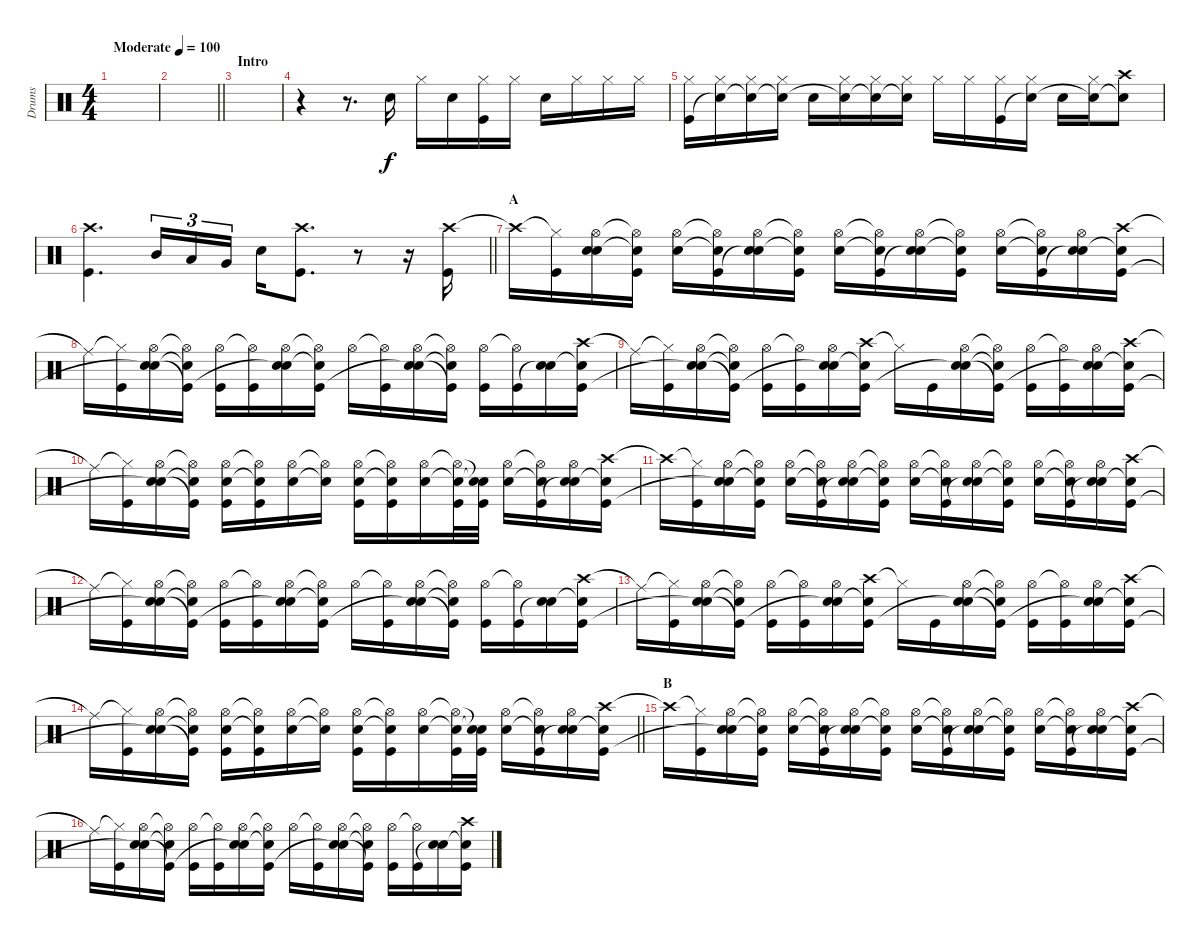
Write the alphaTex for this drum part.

\track ("Drums" "Drums") {instrument percussion}
\staff {score}
\articulation defaults
\ts (4 4)
\tempo (100 "Moderate")
\clef neutral
\ks c
|
\barLineRight lightlight
|
\section ("" "Intro")
|
r.4 r.8{d} "Snare (hit) 2".16 "Hi-Hat (closed)".16 "Snare (hit) 2".16 ("Hi-Hat (closed)" "Kick (hit)").16 "Hi-Hat (closed)".16 "Snare (hit) 2".16 "Hi-Hat (closed)".16 "Hi-Hat (closed)".16 "Hi-Hat (closed)".16 |
("Hi-Hat (closed)" "Kick (hit)").16 ("Hi-Hat (closed)" "Snare (hit)"{t}).16 ("Hi-Hat (closed)" "Snare (hit)"{t}).16 ("Hi-Hat (closed)" "Snare (hit)"{t}).16 "Snare (hit) 2".16 ("Hi-Hat (closed)" "Snare (hit)"{t}).16 ("Hi-Hat (closed)" "Snare (hit)"{t}).16 ("Hi-Hat (closed)" "Snare (hit)"{t}).16 "Hi-Hat (closed)".16 "Hi-Hat (closed)".16 ("Hi-Hat (closed)" "Kick (hit)").16 ("Hi-Hat (closed)" "Snare (hit)"{t}).16 "Snare (hit) 2".16 ("Hi-Hat (closed)" "Snare (hit)"{t}).16 ("Crash high (hit)" "Snare (hit)"{t}).8 |
\barLineRight lightlight
("Crash high (hit)" "Kick (hit)").4{d} "Mid Tom (hit)".16{tu (3 2)} "Low Tom (hit)".16{tu (3 2)} "Very Low Tom (hit)".16{tu (3 2)} "Snare (hit) 2".16 ("Crash high (hit)" "Kick (hit)").8{d} r.8 r.16 ("Crash high (hit)" "Kick (hit)").16 |
\section ("" "A")
"Crash high (hit)"{t}.16 ("Hi-Hat (closed)"{t} "Kick (hit)").16 ("Hi-Hat (open)" "Snare (hit) 2" "Snare (hit)").16 ("Hi-Hat (open)"{t} "Snare (hit) 2"{t} "Kick (hit)").16 ("Hi-Hat (open)" "Snare (hit) 2").16 ("Hi-Hat (open)"{t} "Snare (hit) 2"{t} "Kick (hit)").16 ("Hi-Hat (open)" "Snare (hit) 2" "Snare (hit)"{t}).16 ("Hi-Hat (open)"{t} "Snare (hit) 2"{t} "Kick (hit)").16 ("Hi-Hat (open)" "Snare (hit) 2").16 ("Hi-Hat (open)"{t} "Snare (hit) 2"{t} "Kick (hit)").16 ("Hi-Hat (open)" "Snare (hit) 2" "Snare (hit)"{t}).16 ("Hi-Hat (open)"{t} "Snare (hit) 2"{t} "Kick (hit)").16 ("Hi-Hat (open)" "Snare (hit) 2").16 ("Hi-Hat (open)"{t} "Snare (hit) 2"{t} "Kick (hit)").16 ("Hi-Hat (open)" "Snare (hit) 2" "Snare (hit)"{t}).16 ("Crash high (hit)" "Snare (hit) 2"{t} "Kick (hit)").16 |
"Ride (middle)"{t}.16 ("Hi-Hat (closed)"{t} "Kick (hit)").16 ("Hi-Hat (open)" "Snare (hit) 2" "Snare (hit)"{t}).16 ("Hi-Hat (open)"{t} "Snare (hit) 2"{t} "Kick (hit)"{t}).16 ("Hi-Hat (open)" "Kick (hit)").16 ("Hi-Hat (open)"{t} "Kick (hit)").16 ("Hi-Hat (open)" "Snare (hit) 2" "Snare (hit)"{t}).16 ("Hi-Hat (open)"{t} "Snare (hit) 2"{t} "Kick (hit)").16 "Hi-Hat (open)".16 ("Hi-Hat (open)"{t} "Kick (hit)").16 ("Hi-Hat (open)" "Snare (hit) 2" "Snare (hit)"{t}).16 ("Hi-Hat (open)"{t} "Snare (hit) 2"{t} "Kick (hit)"{t}).16 ("Hi-Hat (open)" "Kick (hit)").16 ("Hi-Hat (open)"{t} "Kick (hit)").16 ("Snare (hit) 2" "Snare (hit)"{t}).16 ("Crash high (hit)" "Snare (hit) 2"{t} "Kick (hit)").16 |
"Ride (middle)"{t}.16 ("Hi-Hat (closed)"{t} "Kick (hit)").16 ("Hi-Hat (open)" "Snare (hit) 2" "Snare (hit)"{t}).16 ("Hi-Hat (open)"{t} "Snare (hit) 2"{t} "Kick (hit)"{t}).16 ("Hi-Hat (open)" "Kick (hit)").16 ("Hi-Hat (open)"{t} "Kick (hit)").16 ("Hi-Hat (open)" "Snare (hit) 2" "Snare (hit)"{t}).16 ("Crash high (hit)" "Snare (hit) 2"{t} "Kick (hit)").16 "Hi-Hat (closed)"{t}.16 "Kick (hit)".16 ("Hi-Hat (open)" "Snare (hit) 2" "Snare (hit)"{t}).16 ("Hi-Hat (open)"{t} "Snare (hit) 2"{t} "Kick (hit)"{t}).16 ("Hi-Hat (open)" "Kick (hit)").16 ("Hi-Hat (open)"{t} "Kick (hit)").16 ("Hi-Hat (open)" "Snare (hit) 2" "Snare (hit)"{t}).16 ("Crash high (hit)" "Snare (hit) 2"{t} "Kick (hit)").16 |
"Ride (middle)"{t}.16 ("Hi-Hat (closed)"{t} "Kick (hit)").16 ("Hi-Hat (open)" "Snare (hit) 2" "Snare (hit)"{t}).16 ("Hi-Hat (open)"{t} "Snare (hit) 2"{t} "Kick (hit)"{t}).16 ("Hi-Hat (open)" "Snare (hit) 2" "Kick (hit)").16 ("Hi-Hat (open)"{t} "Snare (hit) 2"{t} "Kick (hit)").16 ("Hi-Hat (open)" "Snare (hit) 2").16 ("Hi-Hat (open)"{t} "Snare (hit) 2"{t}).16 ("Hi-Hat (open)" "Snare (hit) 2" "Kick (hit)").16 ("Hi-Hat (open)"{t} "Snare (hit) 2"{t} "Kick (hit)").16 ("Hi-Hat (open)" "Snare (hit) 2").16 ("Hi-Hat (open)"{t} "Snare (hit) 2"{t} "Kick (hit)").32 ("Snare (hit)"{t} "Snare (hit)"{t} "Kick (hit)").32 ("Hi-Hat (open)" "Snare (hit) 2").16 ("Hi-Hat (open)"{t} "Snare (hit) 2"{t} "Kick (hit)").16 ("Hi-Hat (open)" "Snare (hit) 2" "Snare (hit)"{t}).16 ("Crash high (hit)" "Snare (hit) 2"{t} "Kick (hit)").16 |
"Crash high (hit)"{t}.16 ("Hi-Hat (closed)"{t} "Kick (hit)").16 ("Hi-Hat (open)" "Snare (hit) 2" "Snare (hit)"{t}).16 ("Hi-Hat (open)"{t} "Snare (hit) 2"{t} "Kick (hit)").16 ("Hi-Hat (open)" "Snare (hit) 2").16 ("Hi-Hat (open)"{t} "Snare (hit) 2"{t} "Kick (hit)").16 ("Hi-Hat (open)" "Snare (hit) 2" "Snare (hit)"{t}).16 ("Hi-Hat (open)"{t} "Snare (hit) 2"{t} "Kick (hit)").16 ("Hi-Hat (open)" "Snare (hit) 2").16 ("Hi-Hat (open)"{t} "Snare (hit) 2"{t} "Kick (hit)").16 ("Hi-Hat (open)" "Snare (hit) 2" "Snare (hit)"{t}).16 ("Hi-Hat (open)"{t} "Snare (hit) 2"{t} "Kick (hit)").16 ("Hi-Hat (open)" "Snare (hit) 2").16 ("Hi-Hat (open)"{t} "Snare (hit) 2"{t} "Kick (hit)").16 ("Hi-Hat (open)" "Snare (hit) 2" "Snare (hit)"{t}).16 ("Crash high (hit)" "Snare (hit) 2"{t} "Kick (hit)").16 |
"Ride (middle)"{t}.16 ("Hi-Hat (closed)"{t} "Kick (hit)").16 ("Hi-Hat (open)" "Snare (hit) 2" "Snare (hit)"{t}).16 ("Hi-Hat (open)"{t} "Snare (hit) 2"{t} "Kick (hit)"{t}).16 ("Hi-Hat (open)" "Kick (hit)").16 ("Hi-Hat (open)"{t} "Kick (hit)").16 ("Hi-Hat (open)" "Snare (hit) 2" "Snare (hit)"{t}).16 ("Hi-Hat (open)"{t} "Snare (hit) 2"{t} "Kick (hit)").16 "Hi-Hat (open)".16 ("Hi-Hat (open)"{t} "Kick (hit)").16 ("Hi-Hat (open)" "Snare (hit) 2" "Snare (hit)"{t}).16 ("Hi-Hat (open)"{t} "Snare (hit) 2"{t} "Kick (hit)"{t}).16 ("Hi-Hat (open)" "Kick (hit)").16 ("Hi-Hat (open)"{t} "Kick (hit)").16 ("Snare (hit) 2" "Snare (hit)"{t}).16 ("Crash high (hit)" "Snare (hit) 2"{t} "Kick (hit)").16 |
"Ride (middle)"{t}.16 ("Hi-Hat (closed)"{t} "Kick (hit)").16 ("Hi-Hat (open)" "Snare (hit) 2" "Snare (hit)"{t}).16 ("Hi-Hat (open)"{t} "Snare (hit) 2"{t} "Kick (hit)"{t}).16 ("Hi-Hat (open)" "Kick (hit)").16 ("Hi-Hat (open)"{t} "Kick (hit)").16 ("Hi-Hat (open)" "Snare (hit) 2" "Snare (hit)"{t}).16 ("Crash high (hit)" "Snare (hit) 2"{t} "Kick (hit)").16 "Hi-Hat (closed)"{t}.16 "Kick (hit)".16 ("Hi-Hat (open)" "Snare (hit) 2" "Snare (hit)"{t}).16 ("Hi-Hat (open)"{t} "Snare (hit) 2"{t} "Kick (hit)"{t}).16 ("Hi-Hat (open)" "Kick (hit)").16 ("Hi-Hat (open)"{t} "Kick (hit)").16 ("Hi-Hat (open)" "Snare (hit) 2" "Snare (hit)"{t}).16 ("Crash high (hit)" "Snare (hit) 2"{t} "Kick (hit)").16 |
\barLineRight lightlight "Ride (middle)"{t}.16
("Hi-Hat (closed)"{t} "Kick (hit)").16 ("Hi-Hat (open)" "Snare (hit) 2" "Snare (hit)"{t}).16 ("Hi-Hat (open)"{t} "Snare (hit) 2"{t} "Kick (hit)"{t}).16 ("Hi-Hat (open)" "Snare (hit) 2" "Kick (hit)").16 ("Hi-Hat (open)"{t} "Snare (hit) 2"{t} "Kick (hit)").16 ("Hi-Hat (open)" "Snare (hit) 2").16 ("Hi-Hat (open)"{t} "Snare (hit) 2"{t}).16 ("Hi-Hat (open)" "Snare (hit) 2" "Kick (hit)").16 ("Hi-Hat (open)"{t} "Snare (hit) 2"{t} "Kick (hit)").16 ("Hi-Hat (open)" "Snare (hit) 2").16 ("Hi-Hat (open)"{t} "Snare (hit) 2"{t} "Kick (hit)").32 ("Snare (hit)"{t} "Snare (hit)"{t} "Kick (hit)").32 ("Hi-Hat (open)" "Snare (hit) 2").16 ("Hi-Hat (open)"{t} "Snare (hit) 2"{t} "Kick (hit)").16 ("Hi-Hat (open)" "Snare (hit) 2" "Snare (hit)"{t}).16 ("Crash high (hit)" "Snare (hit) 2"{t} "Kick (hit)").16 |
\section ("" "B")
"Crash high (hit)"{t}.16 ("Hi-Hat (closed)"{t} "Kick (hit)").16 ("Hi-Hat (open)" "Snare (hit) 2" "Snare (hit)"{t}).16 ("Hi-Hat (open)"{t} "Snare (hit) 2"{t} "Kick (hit)").16 ("Hi-Hat (open)" "Snare (hit) 2").16 ("Hi-Hat (open)"{t} "Snare (hit) 2"{t} "Kick (hit)").16 ("Hi-Hat (open)" "Snare (hit) 2" "Snare (hit)"{t}).16 ("Hi-Hat (open)"{t} "Snare (hit) 2"{t} "Kick (hit)").16 ("Hi-Hat (open)" "Snare (hit) 2").16 ("Hi-Hat (open)"{t} "Snare (hit) 2"{t} "Kick (hit)").16 ("Hi-Hat (open)" "Snare (hit) 2" "Snare (hit)"{t}).16 ("Hi-Hat (open)"{t} "Snare (hit) 2"{t} "Kick (hit)").16 ("Hi-Hat (open)" "Snare (hit) 2").16 ("Hi-Hat (open)"{t} "Snare (hit) 2"{t} "Kick (hit)").16 ("Hi-Hat (open)" "Snare (hit) 2" "Snare (hit)"{t}).16 ("Crash high (hit)" "Snare (hit) 2"{t} "Kick (hit)").16 |
"Ride (middle)"{t}.16 ("Hi-Hat (closed)"{t} "Kick (hit)").16 ("Hi-Hat (open)" "Snare (hit) 2" "Snare (hit)"{t}).16 ("Hi-Hat (open)"{t} "Snare (hit) 2"{t} "Kick (hit)"{t}).16 ("Hi-Hat (open)" "Kick (hit)").16 ("Hi-Hat (open)"{t} "Kick (hit)").16 ("Hi-Hat (open)" "Snare (hit) 2" "Snare (hit)"{t}).16 ("Hi-Hat (open)"{t} "Snare (hit) 2"{t} "Kick (hit)").16 "Hi-Hat (open)".16 ("Hi-Hat (open)"{t} "Kick (hit)").16 ("Hi-Hat (open)" "Snare (hit) 2" "Snare (hit)"{t}).16 ("Hi-Hat (open)"{t} "Snare (hit) 2"{t} "Kick (hit)"{t}).16 ("Hi-Hat (open)" "Kick (hit)").16 ("Hi-Hat (open)"{t} "Kick (hit)").16 ("Snare (hit) 2" "Snare (hit)"{t}).16 ("Crash high (hit)" "Snare (hit) 2"{t} "Kick (hit)").16
